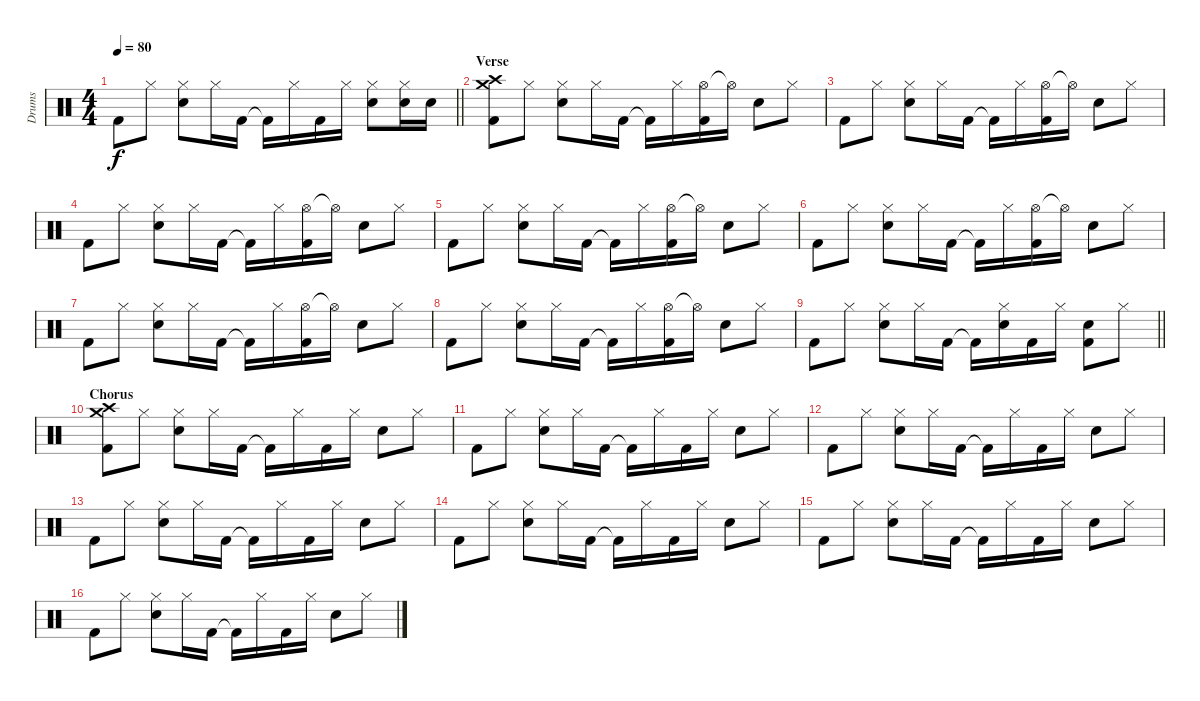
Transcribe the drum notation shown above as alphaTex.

\track ("Drums" "Drums") {instrument percussion}
\staff {score}
\articulation defaults
\ts (4 4)
\tempo 80
\clef neutral
\barLineRight lightlight
\ks c "Kick (hit) 2".8{dy f} "Hi-Hat (closed)".8
("Hi-Hat (closed)" "Snare (hit) 2").8 "Hi-Hat (closed)".16 "Kick (hit) 2".16 "Kick (hit) 2"{t}.16 "Hi-Hat (closed)".16 "Kick (hit) 2".16 "Hi-Hat (closed)".16 ("Hi-Hat (closed)" "Snare (hit) 2").8 ("Hi-Hat (closed)" "Snare (hit) 2").16 "Snare (hit) 2".16 |
\section ("" "Verse")
("Crash medium (hit)" "Crash high (hit)" "Kick (hit) 2").8 "Hi-Hat (closed)".8 ("Hi-Hat (closed)" "Snare (hit) 2").8 "Hi-Hat (closed)".16 "Kick (hit) 2".16 "Kick (hit) 2"{t}.16 "Hi-Hat (closed)".16 ("Hi-Hat (open)" "Kick (hit) 2").16 "Hi-Hat (open)"{t}.16 "Snare (hit) 2".8 "Hi-Hat (closed)".8 |
"Kick (hit) 2".8 "Hi-Hat (closed)".8 ("Hi-Hat (closed)" "Snare (hit) 2").8 "Hi-Hat (closed)".16 "Kick (hit) 2".16 "Kick (hit) 2"{t}.16 "Hi-Hat (closed)".16 ("Hi-Hat (open)" "Kick (hit) 2").16 "Hi-Hat (open)"{t}.16 "Snare (hit) 2".8 "Hi-Hat (closed)".8 |
"Kick (hit) 2".8 "Hi-Hat (closed)".8 ("Hi-Hat (closed)" "Snare (hit) 2").8 "Hi-Hat (closed)".16 "Kick (hit) 2".16 "Kick (hit) 2"{t}.16 "Hi-Hat (closed)".16 ("Hi-Hat (open)" "Kick (hit) 2").16 "Hi-Hat (open)"{t}.16 "Snare (hit) 2".8 "Hi-Hat (closed)".8 |
"Kick (hit) 2".8 "Hi-Hat (closed)".8 ("Hi-Hat (closed)" "Snare (hit) 2").8 "Hi-Hat (closed)".16 "Kick (hit) 2".16 "Kick (hit) 2"{t}.16 "Hi-Hat (closed)".16 ("Hi-Hat (open)" "Kick (hit) 2").16 "Hi-Hat (open)"{t}.16 "Snare (hit) 2".8 "Hi-Hat (closed)".8 |
"Kick (hit) 2".8 "Hi-Hat (closed)".8 ("Hi-Hat (closed)" "Snare (hit) 2").8 "Hi-Hat (closed)".16 "Kick (hit) 2".16 "Kick (hit) 2"{t}.16 "Hi-Hat (closed)".16 ("Hi-Hat (open)" "Kick (hit) 2").16 "Hi-Hat (open)"{t}.16 "Snare (hit) 2".8 "Hi-Hat (closed)".8 |
"Kick (hit) 2".8 "Hi-Hat (closed)".8 ("Hi-Hat (closed)" "Snare (hit) 2").8 "Hi-Hat (closed)".16 "Kick (hit) 2".16 "Kick (hit) 2"{t}.16 "Hi-Hat (closed)".16 ("Hi-Hat (open)" "Kick (hit) 2").16 "Hi-Hat (open)"{t}.16 "Snare (hit) 2".8 "Hi-Hat (closed)".8 |
"Kick (hit) 2".8 "Hi-Hat (closed)".8 ("Hi-Hat (closed)" "Snare (hit) 2").8 "Hi-Hat (closed)".16 "Kick (hit) 2".16 "Kick (hit) 2"{t}.16 "Hi-Hat (closed)".16 ("Hi-Hat (open)" "Kick (hit) 2").16 "Hi-Hat (open)"{t}.16 "Snare (hit) 2".8 "Hi-Hat (closed)".8 |
\barLineRight lightlight "Kick (hit) 2".8 "Hi-Hat (closed)".8
("Hi-Hat (closed)" "Snare (hit) 2").8 "Hi-Hat (closed)".16 "Kick (hit) 2".16 "Kick (hit) 2"{t}.16 ("Snare (hit) 2" "Hi-Hat (closed)").16 "Kick (hit) 2".16 "Hi-Hat (closed)".16 ("Snare (hit) 2" "Kick (hit) 2").8 "Hi-Hat (closed)".8 |
\section ("" "Chorus")
("Crash medium (hit)" "Crash high (hit)" "Kick (hit) 2").8 "Hi-Hat (closed)".8 ("Hi-Hat (closed)" "Snare (hit) 2").8 "Hi-Hat (closed)".16 "Kick (hit) 2".16 "Kick (hit) 2"{t}.16 "Hi-Hat (closed)".16 "Kick (hit) 2".16 "Hi-Hat (closed)".16 "Snare (hit) 2".8 "Hi-Hat (closed)".8 |
"Kick (hit) 2".8 "Hi-Hat (closed)".8 ("Hi-Hat (closed)" "Snare (hit) 2").8 "Hi-Hat (closed)".16 "Kick (hit) 2".16 "Kick (hit) 2"{t}.16 "Hi-Hat (closed)".16 "Kick (hit) 2".16 "Hi-Hat (closed)".16 "Snare (hit) 2".8 "Hi-Hat (closed)".8 |
"Kick (hit) 2".8 "Hi-Hat (closed)".8 ("Hi-Hat (closed)" "Snare (hit) 2").8 "Hi-Hat (closed)".16 "Kick (hit) 2".16 "Kick (hit) 2"{t}.16 "Hi-Hat (closed)".16 "Kick (hit) 2".16 "Hi-Hat (closed)".16 "Snare (hit) 2".8 "Hi-Hat (closed)".8 |
"Kick (hit) 2".8 "Hi-Hat (closed)".8 ("Hi-Hat (closed)" "Snare (hit) 2").8 "Hi-Hat (closed)".16 "Kick (hit) 2".16 "Kick (hit) 2"{t}.16 "Hi-Hat (closed)".16 "Kick (hit) 2".16 "Hi-Hat (closed)".16 "Snare (hit) 2".8 "Hi-Hat (closed)".8 |
"Kick (hit) 2".8 "Hi-Hat (closed)".8 ("Hi-Hat (closed)" "Snare (hit) 2").8 "Hi-Hat (closed)".16 "Kick (hit) 2".16 "Kick (hit) 2"{t}.16 "Hi-Hat (closed)".16 "Kick (hit) 2".16 "Hi-Hat (closed)".16 "Snare (hit) 2".8 "Hi-Hat (closed)".8 |
"Kick (hit) 2".8 "Hi-Hat (closed)".8 ("Hi-Hat (closed)" "Snare (hit) 2").8 "Hi-Hat (closed)".16 "Kick (hit) 2".16 "Kick (hit) 2"{t}.16 "Hi-Hat (closed)".16 "Kick (hit) 2".16 "Hi-Hat (closed)".16 "Snare (hit) 2".8 "Hi-Hat (closed)".8 |
"Kick (hit) 2".8 "Hi-Hat (closed)".8 ("Hi-Hat (closed)" "Snare (hit) 2").8 "Hi-Hat (closed)".16 "Kick (hit) 2".16 "Kick (hit) 2"{t}.16 "Hi-Hat (closed)".16 "Kick (hit) 2".16 "Hi-Hat (closed)".16 "Snare (hit) 2".8 "Hi-Hat (closed)".8
